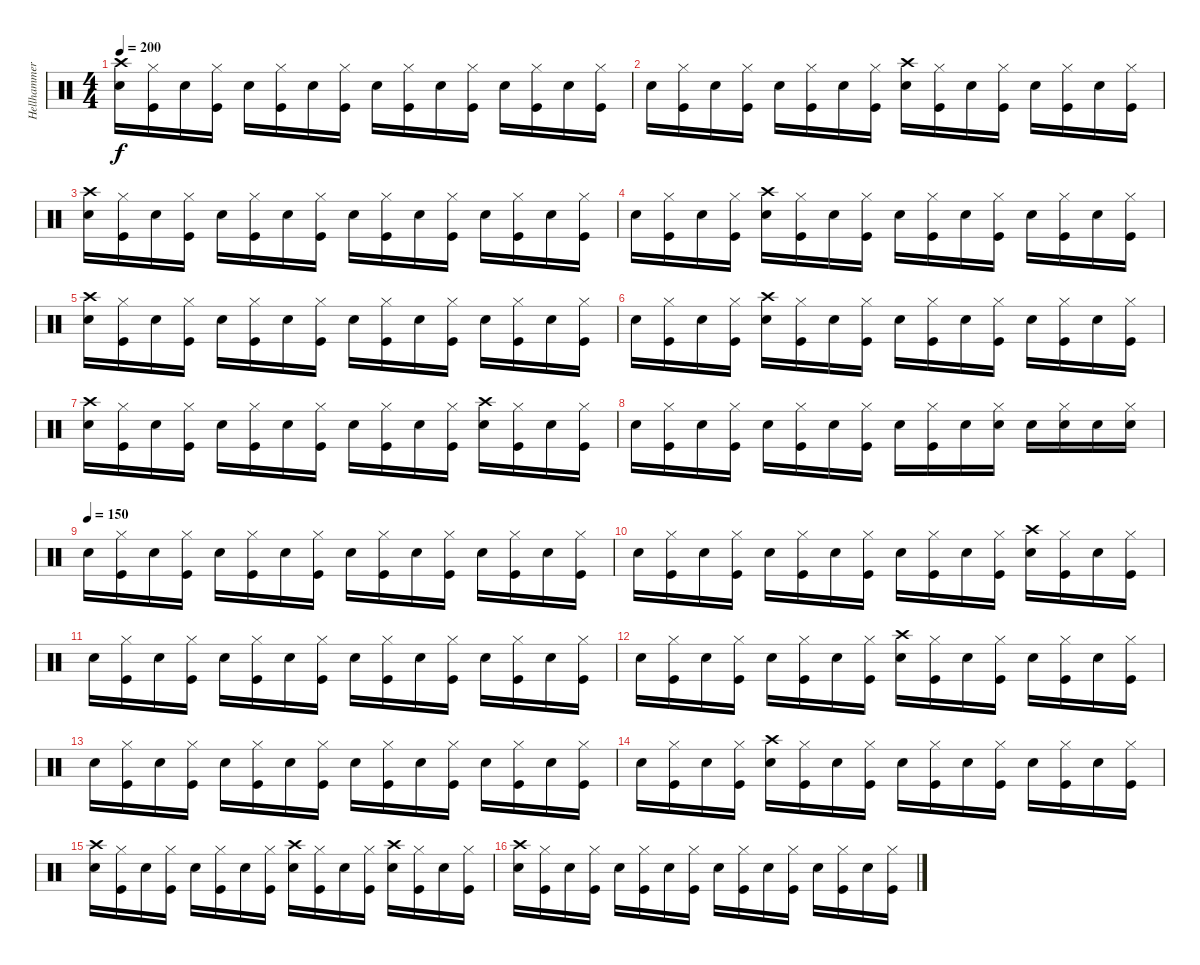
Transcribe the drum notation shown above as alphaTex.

\track ("Hellhammer" "Hellhammer") {instrument percussion}
\staff {score}
\articulation defaults
\ts (4 4)
\tempo 200
\clef neutral
\ks c
("Snare (hit) 2" "Crash high (hit)").16{dy f} ("Kick (hit)" "Hi-Hat (closed)").16 "Snare (hit) 2".16 ("Kick (hit)" "Hi-Hat (closed)").16 "Snare (hit) 2".16 ("Kick (hit)" "Hi-Hat (closed)").16 "Snare (hit) 2".16 ("Kick (hit)" "Hi-Hat (closed)").16 "Snare (hit) 2".16 ("Kick (hit)" "Hi-Hat (closed)").16 "Snare (hit) 2".16 ("Kick (hit)" "Hi-Hat (closed)").16 "Snare (hit) 2".16 ("Kick (hit)" "Hi-Hat (closed)").16 "Snare (hit) 2".16 ("Kick (hit)" "Hi-Hat (closed)").16 |
"Snare (hit) 2".16 ("Kick (hit)" "Hi-Hat (closed)").16 "Snare (hit) 2".16 ("Kick (hit)" "Hi-Hat (closed)").16 "Snare (hit) 2".16 ("Kick (hit)" "Hi-Hat (closed)").16 "Snare (hit) 2".16 ("Kick (hit)" "Hi-Hat (closed)").16 ("Snare (hit) 2" "Crash high (hit)").16 ("Kick (hit)" "Hi-Hat (closed)").16 "Snare (hit) 2".16 ("Kick (hit)" "Hi-Hat (closed)").16 "Snare (hit) 2".16 ("Kick (hit)" "Hi-Hat (closed)").16 "Snare (hit) 2".16 ("Kick (hit)" "Hi-Hat (closed)").16 |
("Snare (hit) 2" "Crash high (hit)").16 ("Kick (hit)" "Hi-Hat (closed)").16 "Snare (hit) 2".16 ("Kick (hit)" "Hi-Hat (closed)").16 "Snare (hit) 2".16 ("Kick (hit)" "Hi-Hat (closed)").16 "Snare (hit) 2".16 ("Kick (hit)" "Hi-Hat (closed)").16 "Snare (hit) 2".16 ("Kick (hit)" "Hi-Hat (closed)").16 "Snare (hit) 2".16 ("Kick (hit)" "Hi-Hat (closed)").16 "Snare (hit) 2".16 ("Kick (hit)" "Hi-Hat (closed)").16 "Snare (hit) 2".16 ("Kick (hit)" "Hi-Hat (closed)").16 |
"Snare (hit) 2".16 ("Kick (hit)" "Hi-Hat (closed)").16 "Snare (hit) 2".16 ("Kick (hit)" "Hi-Hat (closed)").16 ("Snare (hit) 2" "Crash high (hit)").16 ("Kick (hit)" "Hi-Hat (closed)").16 "Snare (hit) 2".16 ("Kick (hit)" "Hi-Hat (closed)").16 "Snare (hit) 2".16 ("Kick (hit)" "Hi-Hat (closed)").16 "Snare (hit) 2".16 ("Kick (hit)" "Hi-Hat (closed)").16 "Snare (hit) 2".16 ("Kick (hit)" "Hi-Hat (closed)").16 "Snare (hit) 2".16 ("Kick (hit)" "Hi-Hat (closed)").16 |
("Snare (hit) 2" "Crash high (hit)").16 ("Kick (hit)" "Hi-Hat (closed)").16 "Snare (hit) 2".16 ("Kick (hit)" "Hi-Hat (closed)").16 "Snare (hit) 2".16 ("Kick (hit)" "Hi-Hat (closed)").16 "Snare (hit) 2".16 ("Kick (hit)" "Hi-Hat (closed)").16 "Snare (hit) 2".16 ("Kick (hit)" "Hi-Hat (closed)").16 "Snare (hit) 2".16 ("Kick (hit)" "Hi-Hat (closed)").16 "Snare (hit) 2".16 ("Kick (hit)" "Hi-Hat (closed)").16 "Snare (hit) 2".16 ("Kick (hit)" "Hi-Hat (closed)").16 |
"Snare (hit) 2".16 ("Kick (hit)" "Hi-Hat (closed)").16 "Snare (hit) 2".16 ("Kick (hit)" "Hi-Hat (closed)").16 ("Snare (hit) 2" "Crash high (hit)").16 ("Kick (hit)" "Hi-Hat (closed)").16 "Snare (hit) 2".16 ("Kick (hit)" "Hi-Hat (closed)").16 "Snare (hit) 2".16 ("Kick (hit)" "Hi-Hat (closed)").16 "Snare (hit) 2".16 ("Kick (hit)" "Hi-Hat (closed)").16 "Snare (hit) 2".16 ("Kick (hit)" "Hi-Hat (closed)").16 "Snare (hit) 2".16 ("Kick (hit)" "Hi-Hat (closed)").16 |
("Snare (hit) 2" "Crash high (hit)").16 ("Kick (hit)" "Hi-Hat (closed)").16 "Snare (hit) 2".16 ("Kick (hit)" "Hi-Hat (closed)").16 "Snare (hit) 2".16 ("Kick (hit)" "Hi-Hat (closed)").16 "Snare (hit) 2".16 ("Kick (hit)" "Hi-Hat (closed)").16 "Snare (hit) 2".16 ("Kick (hit)" "Hi-Hat (closed)").16 "Snare (hit) 2".16 ("Kick (hit)" "Hi-Hat (closed)").16 ("Snare (hit) 2" "Crash high (hit)").16 ("Kick (hit)" "Hi-Hat (closed)").16 "Snare (hit) 2".16 ("Kick (hit)" "Hi-Hat (closed)").16 |
"Snare (hit) 2".16 ("Kick (hit)" "Hi-Hat (closed)").16 "Snare (hit) 2".16 ("Kick (hit)" "Hi-Hat (closed)").16 "Snare (hit) 2".16 ("Kick (hit)" "Hi-Hat (closed)").16 "Snare (hit) 2".16 ("Kick (hit)" "Hi-Hat (closed)").16 "Snare (hit) 2".16 ("Kick (hit)" "Hi-Hat (closed)").16 "Snare (hit) 2".16 ("Snare (hit) 2" "Hi-Hat (closed)").16 "Snare (hit) 2".16 ("Snare (hit) 2" "Hi-Hat (closed)").16 "Snare (hit) 2".16 ("Snare (hit) 2" "Hi-Hat (closed)").16 |
\tempo (150)
"Snare (hit) 2".16 ("Kick (hit)" "Hi-Hat (closed)").16 "Snare (hit) 2".16 ("Kick (hit)" "Hi-Hat (closed)").16 "Snare (hit) 2".16 ("Kick (hit)" "Hi-Hat (closed)").16 "Snare (hit) 2".16 ("Kick (hit)" "Hi-Hat (closed)").16 "Snare (hit) 2".16 ("Kick (hit)" "Hi-Hat (closed)").16 "Snare (hit) 2".16 ("Kick (hit)" "Hi-Hat (closed)").16 "Snare (hit) 2".16 ("Kick (hit)" "Hi-Hat (closed)").16 "Snare (hit) 2".16 ("Kick (hit)" "Hi-Hat (closed)").16 |
"Snare (hit) 2".16 ("Kick (hit)" "Hi-Hat (closed)").16 "Snare (hit) 2".16 ("Kick (hit)" "Hi-Hat (closed)").16 "Snare (hit) 2".16 ("Kick (hit)" "Hi-Hat (closed)").16 "Snare (hit) 2".16 ("Kick (hit)" "Hi-Hat (closed)").16 "Snare (hit) 2".16 ("Kick (hit)" "Hi-Hat (closed)").16 "Snare (hit) 2".16 ("Kick (hit)" "Hi-Hat (closed)").16 ("Snare (hit) 2" "Crash high (hit)").16 ("Kick (hit)" "Hi-Hat (closed)").16 "Snare (hit) 2".16 ("Kick (hit)" "Hi-Hat (closed)").16 |
"Snare (hit) 2".16 ("Kick (hit)" "Hi-Hat (closed)").16 "Snare (hit) 2".16 ("Kick (hit)" "Hi-Hat (closed)").16 "Snare (hit) 2".16 ("Kick (hit)" "Hi-Hat (closed)").16 "Snare (hit) 2".16 ("Kick (hit)" "Hi-Hat (closed)").16 "Snare (hit) 2".16 ("Kick (hit)" "Hi-Hat (closed)").16 "Snare (hit) 2".16 ("Kick (hit)" "Hi-Hat (closed)").16 "Snare (hit) 2".16 ("Kick (hit)" "Hi-Hat (closed)").16 "Snare (hit) 2".16 ("Kick (hit)" "Hi-Hat (closed)").16 |
"Snare (hit) 2".16 ("Kick (hit)" "Hi-Hat (closed)").16 "Snare (hit) 2".16 ("Kick (hit)" "Hi-Hat (closed)").16 "Snare (hit) 2".16 ("Kick (hit)" "Hi-Hat (closed)").16 "Snare (hit) 2".16 ("Kick (hit)" "Hi-Hat (closed)").16 ("Snare (hit) 2" "Crash high (hit)").16 ("Kick (hit)" "Hi-Hat (closed)").16 "Snare (hit) 2".16 ("Kick (hit)" "Hi-Hat (closed)").16 "Snare (hit) 2".16 ("Kick (hit)" "Hi-Hat (closed)").16 "Snare (hit) 2".16 ("Kick (hit)" "Hi-Hat (closed)").16 |
"Snare (hit) 2".16 ("Kick (hit)" "Hi-Hat (closed)").16 "Snare (hit) 2".16 ("Kick (hit)" "Hi-Hat (closed)").16 "Snare (hit) 2".16 ("Kick (hit)" "Hi-Hat (closed)").16 "Snare (hit) 2".16 ("Kick (hit)" "Hi-Hat (closed)").16 "Snare (hit) 2".16 ("Kick (hit)" "Hi-Hat (closed)").16 "Snare (hit) 2".16 ("Kick (hit)" "Hi-Hat (closed)").16 "Snare (hit) 2".16 ("Kick (hit)" "Hi-Hat (closed)").16 "Snare (hit) 2".16 ("Kick (hit)" "Hi-Hat (closed)").16 |
"Snare (hit) 2".16 ("Kick (hit)" "Hi-Hat (closed)").16 "Snare (hit) 2".16 ("Kick (hit)" "Hi-Hat (closed)").16 ("Snare (hit) 2" "Crash high (hit)").16 ("Kick (hit)" "Hi-Hat (closed)").16 "Snare (hit) 2".16 ("Kick (hit)" "Hi-Hat (closed)").16 "Snare (hit) 2".16 ("Kick (hit)" "Hi-Hat (closed)").16 "Snare (hit) 2".16 ("Kick (hit)" "Hi-Hat (closed)").16 "Snare (hit) 2".16 ("Kick (hit)" "Hi-Hat (closed)").16 "Snare (hit) 2".16 ("Kick (hit)" "Hi-Hat (closed)").16 |
("Snare (hit) 2" "Crash high (hit)").16 ("Kick (hit)" "Hi-Hat (closed)").16 "Snare (hit) 2".16 ("Kick (hit)" "Hi-Hat (closed)").16 "Snare (hit) 2".16 ("Kick (hit)" "Hi-Hat (closed)").16 "Snare (hit) 2".16 ("Kick (hit)" "Hi-Hat (closed)").16 ("Snare (hit) 2" "Crash high (hit)").16 ("Kick (hit)" "Hi-Hat (closed)").16 "Snare (hit) 2".16 ("Kick (hit)" "Hi-Hat (closed)").16 ("Snare (hit) 2" "Crash high (hit)").16 ("Kick (hit)" "Hi-Hat (closed)").16 "Snare (hit) 2".16 ("Kick (hit)" "Hi-Hat (closed)").16 |
("Snare (hit) 2" "Crash high (hit)").16 ("Kick (hit)" "Hi-Hat (closed)").16 "Snare (hit) 2".16 ("Kick (hit)" "Hi-Hat (closed)").16 "Snare (hit) 2".16 ("Kick (hit)" "Hi-Hat (closed)").16 "Snare (hit) 2".16 ("Kick (hit)" "Hi-Hat (closed)").16 "Snare (hit) 2".16 ("Kick (hit)" "Hi-Hat (closed)").16 "Snare (hit) 2".16 ("Kick (hit)" "Hi-Hat (closed)").16 "Snare (hit) 2".16 ("Kick (hit)" "Hi-Hat (closed)").16 "Snare (hit) 2".16 ("Kick (hit)" "Hi-Hat (closed)").16
